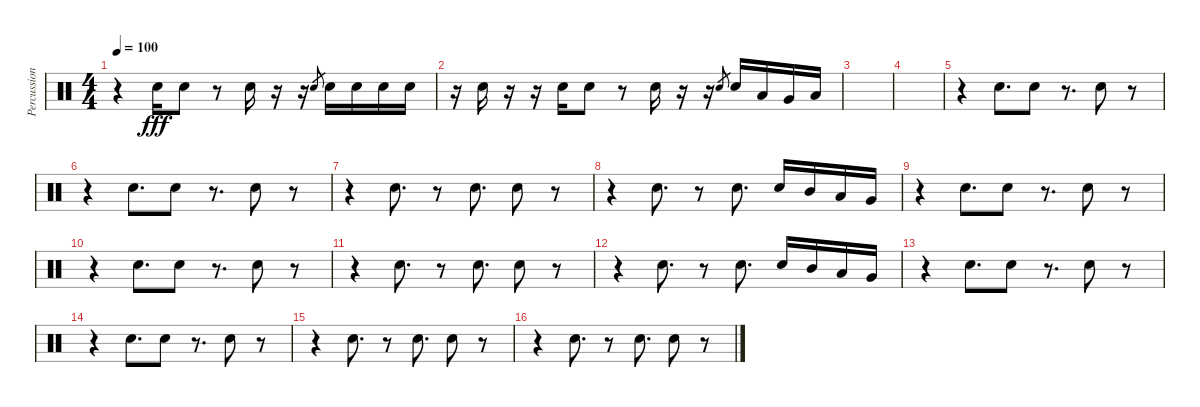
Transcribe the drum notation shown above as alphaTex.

\track ("Percussion" "Percussion") {instrument percussion}
\staff {score}
\articulation defaults
\ts (4 4)
\tempo 100
\clef neutral
\ks c
r.4{dy fff} "Snare (hit) 2".16 "Snare (hit) 2".8 r.8 "Snare (hit) 2".16 r.16 r.16 "Snare (hit) 2".8{gr} "Snare (hit) 2".16 "Snare (hit) 2".16 "Snare (hit) 2".16 "Snare (hit) 2".16 |
r.16 "Snare (hit) 2".16 r.16 r.16 "Snare (hit) 2".16 "Snare (hit) 2".8 r.8 "Snare (hit) 2".16 r.16 r.16 "Snare (hit) 2".8{gr} "Snare (hit) 2".16 "Low Tom (hit)".16 "Very Low Tom (hit)".16 "Low Floor Tom (hit)".16 |
|
|
r.4 "Snare (hit) 2".8{d} "Snare (hit) 2".8 r.8{d} "Snare (hit) 2".8 r.8 |
r.4 "Snare (hit) 2".8{d} "Snare (hit) 2".8 r.8{d} "Snare (hit) 2".8 r.8 |
r.4 "Snare (hit) 2".8{d} r.8 "Snare (hit) 2".8{d} "Snare (hit) 2".8 r.8 |
r.4 "Snare (hit) 2".8{d} r.8 "Snare (hit) 2".8{d} "Snare (hit) 2".16 "Mid Tom (hit)".16 "Low Tom (hit)".16 "Very Low Tom (hit)".16 |
r.4 "Snare (hit) 2".8{d} "Snare (hit) 2".8 r.8{d} "Snare (hit) 2".8 r.8 |
r.4 "Snare (hit) 2".8{d} "Snare (hit) 2".8 r.8{d} "Snare (hit) 2".8 r.8 |
r.4 "Snare (hit) 2".8{d} r.8 "Snare (hit) 2".8{d} "Snare (hit) 2".8 r.8 |
r.4 "Snare (hit) 2".8{d} r.8 "Snare (hit) 2".8{d} "Snare (hit) 2".16 "Mid Tom (hit)".16 "Low Tom (hit)".16 "Very Low Tom (hit)".16 |
r.4 "Snare (hit) 2".8{d} "Snare (hit) 2".8 r.8{d} "Snare (hit) 2".8 r.8 |
r.4 "Snare (hit) 2".8{d} "Snare (hit) 2".8 r.8{d} "Snare (hit) 2".8 r.8 |
r.4 "Snare (hit) 2".8{d} r.8 "Snare (hit) 2".8{d} "Snare (hit) 2".8 r.8 |
r.4 "Snare (hit) 2".8{d} r.8 "Snare (hit) 2".8{d} "Snare (hit) 2".8 r.8
